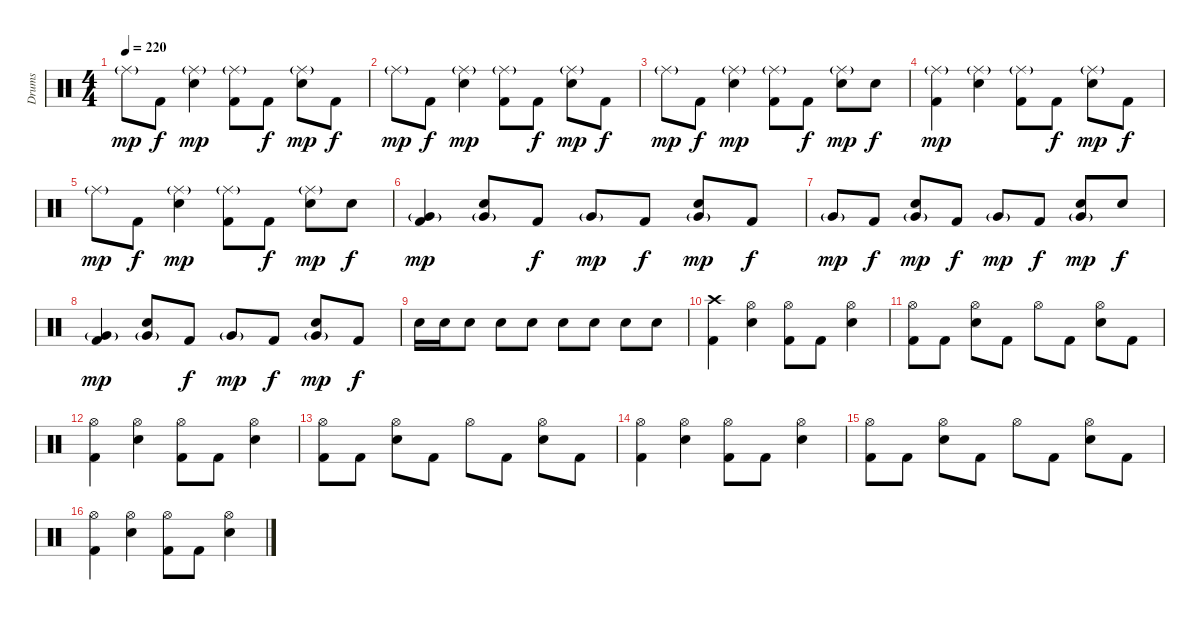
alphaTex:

\track ("Drums" "Drums") {instrument percussion}
\staff {score}
\articulation defaults
\ts (4 4)
\tempo 220
\clef neutral
\ks c "Ride (middle)"{g}.8{dy mp} "Kick (hit) 2".8{dy f}
("Ride (middle)"{g} "Snare (hit) 2").4{dy mp} ("Ride (middle)"{g} "Kick (hit) 2").8 "Kick (hit) 2".8{dy f} ("Ride (middle)"{g} "Snare (hit) 2").8{dy mp} "Kick (hit) 2".8{dy f} |
"Ride (middle)"{g}.8{dy mp} "Kick (hit) 2".8{dy f} ("Ride (middle)"{g} "Snare (hit) 2").4{dy mp} ("Ride (middle)"{g} "Kick (hit) 2").8 "Kick (hit) 2".8{dy f} ("Ride (middle)"{g} "Snare (hit) 2").8{dy mp} "Kick (hit) 2".8{dy f} |
"Ride (middle)"{g}.8{dy mp} "Kick (hit) 2".8{dy f} ("Ride (middle)"{g} "Snare (hit) 2").4{dy mp} ("Ride (middle)"{g} "Kick (hit) 2").8 "Kick (hit) 2".8{dy f} ("Ride (middle)"{g} "Snare (hit) 2").8{dy mp} "Snare (hit) 2".8{dy f} |
("Ride (middle)"{g} "Kick (hit) 2").4{dy mp} ("Ride (middle)"{g} "Snare (hit) 2").4 ("Ride (middle)"{g} "Kick (hit) 2").8 "Kick (hit) 2".8{dy f} ("Ride (middle)"{g} "Snare (hit) 2").8{dy mp} "Kick (hit) 2".8{dy f} |
"Ride (middle)"{g}.8{dy mp} "Kick (hit) 2".8{dy f} ("Ride (middle)"{g} "Snare (hit) 2").4{dy mp} ("Ride (middle)"{g} "Kick (hit) 2").8 "Kick (hit) 2".8{dy f} ("Ride (middle)"{g} "Snare (hit) 2").8{dy mp} "Snare (hit) 2".8{dy f} |
("Very Low Tom (hit)"{g} "Kick (hit) 2").4{dy mp} ("Snare (hit) 2" "Very Low Tom (hit)"{g}).8 "Kick (hit) 2".8{dy f} "Very Low Tom (hit)"{g}.8{dy mp} "Kick (hit) 2".8{dy f} ("Snare (hit) 2" "Very Low Tom (hit)"{g}).8{dy mp} "Kick (hit) 2".8{dy f} |
"Very Low Tom (hit)"{g}.8{dy mp} "Kick (hit) 2".8{dy f} ("Snare (hit) 2" "Very Low Tom (hit)"{g}).8{dy mp} "Kick (hit) 2".8{dy f} "Very Low Tom (hit)"{g}.8{dy mp} "Kick (hit) 2".8{dy f} ("Snare (hit) 2" "Very Low Tom (hit)"{g}).8{dy mp} "Snare (hit) 2".8{dy f} |
("Very Low Tom (hit)"{g} "Kick (hit) 2").4{dy mp} ("Snare (hit) 2" "Very Low Tom (hit)"{g}).8 "Kick (hit) 2".8{dy f} "Very Low Tom (hit)"{g}.8{dy mp} "Kick (hit) 2".8{dy f} ("Snare (hit) 2" "Very Low Tom (hit)"{g}).8{dy mp} "Kick (hit) 2".8{dy f} |
"Snare (hit) 2".16 "Snare (hit) 2".16 "Snare (hit) 2".8 "Snare (hit) 2".8 "Snare (hit) 2".8 "Snare (hit) 2".8 "Snare (hit) 2".8 "Snare (hit) 2".8 "Snare (hit) 2".8 |
("Crash high (hit)" "Kick (hit) 2").4 ("Hi-Hat (open)" "Snare (hit) 2").4 ("Hi-Hat (open)" "Kick (hit) 2").8 "Kick (hit) 2".8 ("Hi-Hat (open)" "Snare (hit) 2").4 |
("Hi-Hat (open)" "Kick (hit) 2").8 "Kick (hit) 2".8 ("Hi-Hat (open)" "Snare (hit) 2").8 "Kick (hit) 2".8 "Hi-Hat (open)".8 "Kick (hit) 2".8 ("Hi-Hat (open)" "Snare (hit) 2").8 "Kick (hit) 2".8 |
("Hi-Hat (open)" "Kick (hit) 2").4 ("Hi-Hat (open)" "Snare (hit) 2").4 ("Hi-Hat (open)" "Kick (hit) 2").8 "Kick (hit) 2".8 ("Hi-Hat (open)" "Snare (hit) 2").4 |
("Hi-Hat (open)" "Kick (hit) 2").8 "Kick (hit) 2".8 ("Hi-Hat (open)" "Snare (hit) 2").8 "Kick (hit) 2".8 "Hi-Hat (open)".8 "Kick (hit) 2".8 ("Hi-Hat (open)" "Snare (hit) 2").8 "Kick (hit) 2".8 |
("Hi-Hat (open)" "Kick (hit) 2").4 ("Hi-Hat (open)" "Snare (hit) 2").4 ("Hi-Hat (open)" "Kick (hit) 2").8 "Kick (hit) 2".8 ("Hi-Hat (open)" "Snare (hit) 2").4 |
("Hi-Hat (open)" "Kick (hit) 2").8 "Kick (hit) 2".8 ("Hi-Hat (open)" "Snare (hit) 2").8 "Kick (hit) 2".8 "Hi-Hat (open)".8 "Kick (hit) 2".8 ("Hi-Hat (open)" "Snare (hit) 2").8 "Kick (hit) 2".8 |
("Hi-Hat (open)" "Kick (hit) 2").4 ("Hi-Hat (open)" "Snare (hit) 2").4 ("Hi-Hat (open)" "Kick (hit) 2").8 "Kick (hit) 2".8 ("Hi-Hat (open)" "Snare (hit) 2").4
